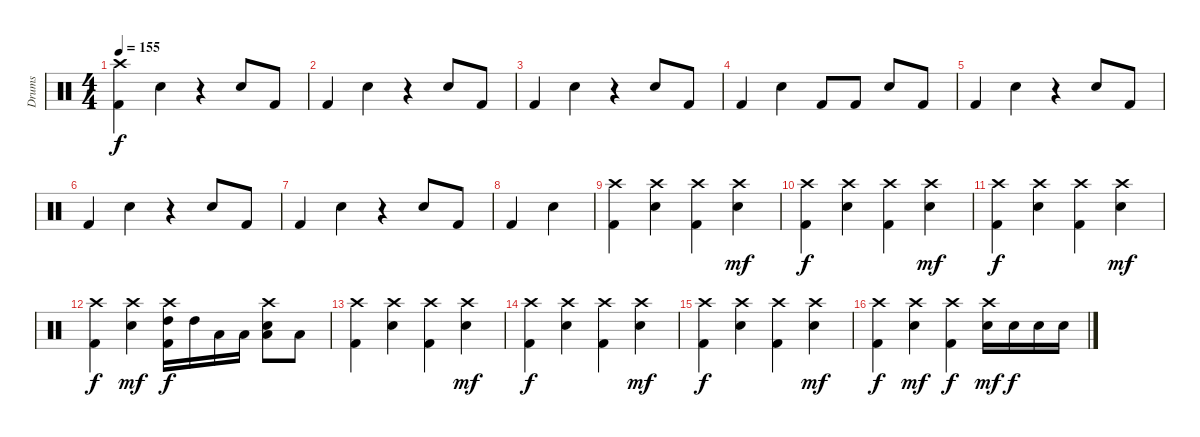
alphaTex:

\track ("Drums" "Drums") {instrument percussion}
\staff {score}
\articulation defaults
\ts (4 4)
\tempo 155
\clef neutral
\ks c
("Crash high (hit)" "Kick (hit) 2").4{dy f} "Electric Snare (hit)".4 r.4 "Electric Snare (hit)".8 "Kick (hit) 2".8 |
"Kick (hit) 2".4 "Electric Snare (hit)".4 r.4 "Electric Snare (hit)".8 "Kick (hit) 2".8 |
"Kick (hit) 2".4 "Electric Snare (hit)".4 r.4 "Electric Snare (hit)".8 "Kick (hit) 2".8 |
"Kick (hit) 2".4 "Electric Snare (hit)".4 "Kick (hit) 2".8 "Kick (hit) 2".8 "Electric Snare (hit)".8 "Kick (hit) 2".8 |
"Kick (hit) 2".4 "Electric Snare (hit)".4 r.4 "Electric Snare (hit)".8 "Kick (hit) 2".8 |
"Kick (hit) 2".4 "Electric Snare (hit)".4 r.4 "Electric Snare (hit)".8 "Kick (hit) 2".8 |
"Kick (hit) 2".4 "Electric Snare (hit)".4 r.4 "Electric Snare (hit)".8 "Kick (hit) 2".8 |
"Kick (hit) 2".4 "Electric Snare (hit)".4 |
("Crash high (hit)" "Kick (hit) 2").4 ("Crash high (hit)" "Electric Snare (hit)").4 ("Crash high (hit)" "Kick (hit) 2").4 ("Crash high (hit)" "Electric Snare (hit)").4{dy mf} |
("Crash high (hit)" "Kick (hit) 2").4{dy f} ("Crash high (hit)" "Electric Snare (hit)").4 ("Crash high (hit)" "Kick (hit) 2").4 ("Crash high (hit)" "Electric Snare (hit)").4{dy mf} |
("Crash high (hit)" "Kick (hit) 2").4{dy f} ("Crash high (hit)" "Electric Snare (hit)").4 ("Crash high (hit)" "Kick (hit) 2").4 ("Crash high (hit)" "Electric Snare (hit)").4{dy mf} |
("Crash high (hit)" "Kick (hit) 2").4{dy f} ("Crash high (hit)" "Electric Snare (hit)").4{dy mf} ("Crash high (hit)" "High Tom (hit)" "Kick (hit) 2").16{dy f} "High Tom (hit)".16 "Low Tom (hit)".16 "Low Tom (hit)".16 ("Crash high (hit)" "Low Floor Tom (hit)" "Electric Snare (hit)").8 "Low Floor Tom (hit)".8 |
("Crash high (hit)" "Kick (hit) 2").4 ("Crash high (hit)" "Electric Snare (hit)").4 ("Crash high (hit)" "Kick (hit) 2").4 ("Crash high (hit)" "Electric Snare (hit)").4{dy mf} |
("Crash high (hit)" "Kick (hit) 2").4{dy f} ("Crash high (hit)" "Electric Snare (hit)").4 ("Crash high (hit)" "Kick (hit) 2").4 ("Crash high (hit)" "Electric Snare (hit)").4{dy mf} |
("Crash high (hit)" "Kick (hit) 2").4{dy f} ("Crash high (hit)" "Electric Snare (hit)").4 ("Crash high (hit)" "Kick (hit) 2").4 ("Crash high (hit)" "Electric Snare (hit)").4{dy mf} |
("Crash high (hit)" "Kick (hit) 2").4{dy f} ("Crash high (hit)" "Electric Snare (hit)").4{dy mf} ("Crash high (hit)" "Kick (hit) 2").4{dy f} ("Crash high (hit)" "Electric Snare (hit)").16{dy mf} "Electric Snare (hit)".16{dy f} "Electric Snare (hit)".16 "Electric Snare (hit)".16
